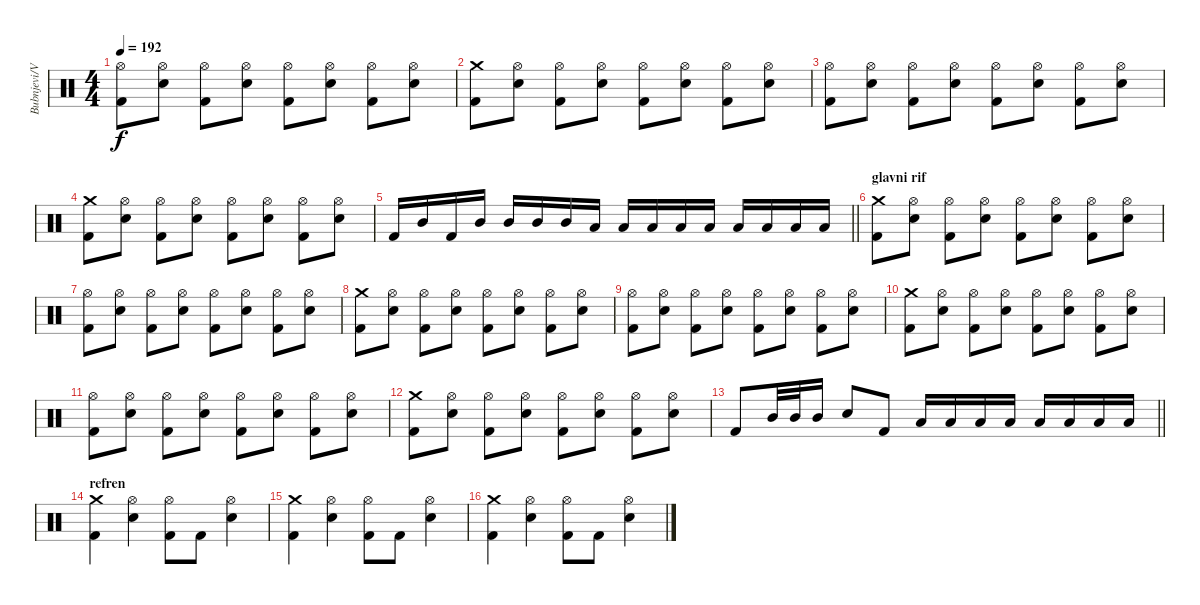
\track ("Bubnjevi/Vestac Tlacitelj" "Bubnjevi/V") {instrument percussion}
\staff {score}
\articulation defaults
\ts (4 4)
\tempo 192
\clef neutral
\ks c
("Hi-Hat (open)" "Kick (hit) 2").8{dy f} ("Hi-Hat (open)" "Electric Snare (hit)").8 ("Hi-Hat (open)" "Kick (hit) 2").8 ("Hi-Hat (open)" "Electric Snare (hit)").8 ("Hi-Hat (open)" "Kick (hit) 2").8 ("Hi-Hat (open)" "Electric Snare (hit)").8 ("Hi-Hat (open)" "Kick (hit) 2").8 ("Hi-Hat (open)" "Electric Snare (hit)").8 |
("Crash medium (hit)" "Kick (hit) 2").8 ("Hi-Hat (open)" "Electric Snare (hit)").8 ("Hi-Hat (open)" "Kick (hit) 2").8 ("Hi-Hat (open)" "Electric Snare (hit)").8 ("Hi-Hat (open)" "Kick (hit) 2").8 ("Hi-Hat (open)" "Electric Snare (hit)").8 ("Hi-Hat (open)" "Kick (hit) 2").8 ("Hi-Hat (open)" "Electric Snare (hit)").8 |
("Hi-Hat (open)" "Kick (hit) 2").8 ("Hi-Hat (open)" "Electric Snare (hit)").8 ("Hi-Hat (open)" "Kick (hit) 2").8 ("Hi-Hat (open)" "Electric Snare (hit)").8 ("Hi-Hat (open)" "Kick (hit) 2").8 ("Hi-Hat (open)" "Electric Snare (hit)").8 ("Hi-Hat (open)" "Kick (hit) 2").8 ("Hi-Hat (open)" "Electric Snare (hit)").8 |
("Crash medium (hit)" "Kick (hit) 2").8 ("Hi-Hat (open)" "Electric Snare (hit)").8 ("Hi-Hat (open)" "Kick (hit) 2").8 ("Hi-Hat (open)" "Electric Snare (hit)").8 ("Hi-Hat (open)" "Kick (hit) 2").8 ("Hi-Hat (open)" "Electric Snare (hit)").8 ("Hi-Hat (open)" "Kick (hit) 2").8 ("Hi-Hat (open)" "Electric Snare (hit)").8 |
\barLineRight lightlight "Kick (hit) 2".16 "Mid Tom (hit)".16 "Kick (hit) 2".16 "Mid Tom (hit)".16 "Mid Tom (hit)".16 "Mid Tom (hit)".16 "Mid Tom (hit)".16 "Low Tom (hit)".16 "Low Tom (hit)".16 "Low Tom (hit)".16 "Low Tom (hit)".16 "Low Floor Tom (hit)".16 "Low Floor Tom (hit)".16 "Low Floor Tom (hit)".16 "Low Floor Tom (hit)".16 "Low Floor Tom (hit)".16
|
\section ("" "glavni rif")
("Crash medium (hit)" "Kick (hit) 2").8 ("Hi-Hat (open)" "Electric Snare (hit)").8 ("Hi-Hat (open)" "Kick (hit) 2").8 ("Hi-Hat (open)" "Electric Snare (hit)").8 ("Hi-Hat (open)" "Kick (hit) 2").8 ("Hi-Hat (open)" "Electric Snare (hit)").8 ("Hi-Hat (open)" "Kick (hit) 2").8 ("Hi-Hat (open)" "Electric Snare (hit)").8 |
("Hi-Hat (open)" "Kick (hit) 2").8 ("Hi-Hat (open)" "Electric Snare (hit)").8 ("Hi-Hat (open)" "Kick (hit) 2").8 ("Hi-Hat (open)" "Electric Snare (hit)").8 ("Hi-Hat (open)" "Kick (hit) 2").8 ("Hi-Hat (open)" "Electric Snare (hit)").8 ("Hi-Hat (open)" "Kick (hit) 2").8 ("Hi-Hat (open)" "Electric Snare (hit)").8 |
("Crash medium (hit)" "Kick (hit) 2").8 ("Hi-Hat (open)" "Electric Snare (hit)").8 ("Hi-Hat (open)" "Kick (hit) 2").8 ("Hi-Hat (open)" "Electric Snare (hit)").8 ("Hi-Hat (open)" "Kick (hit) 2").8 ("Hi-Hat (open)" "Electric Snare (hit)").8 ("Hi-Hat (open)" "Kick (hit) 2").8 ("Hi-Hat (open)" "Electric Snare (hit)").8 |
("Hi-Hat (open)" "Kick (hit) 2").8 ("Hi-Hat (open)" "Electric Snare (hit)").8 ("Hi-Hat (open)" "Kick (hit) 2").8 ("Hi-Hat (open)" "Electric Snare (hit)").8 ("Hi-Hat (open)" "Kick (hit) 2").8 ("Hi-Hat (open)" "Electric Snare (hit)").8 ("Hi-Hat (open)" "Kick (hit) 2").8 ("Hi-Hat (open)" "Electric Snare (hit)").8 |
("Crash medium (hit)" "Kick (hit) 2").8 ("Hi-Hat (open)" "Electric Snare (hit)").8 ("Hi-Hat (open)" "Kick (hit) 2").8 ("Hi-Hat (open)" "Electric Snare (hit)").8 ("Hi-Hat (open)" "Kick (hit) 2").8 ("Hi-Hat (open)" "Electric Snare (hit)").8 ("Hi-Hat (open)" "Kick (hit) 2").8 ("Hi-Hat (open)" "Electric Snare (hit)").8 |
("Hi-Hat (open)" "Kick (hit) 2").8 ("Hi-Hat (open)" "Electric Snare (hit)").8 ("Hi-Hat (open)" "Kick (hit) 2").8 ("Hi-Hat (open)" "Electric Snare (hit)").8 ("Hi-Hat (open)" "Kick (hit) 2").8 ("Hi-Hat (open)" "Electric Snare (hit)").8 ("Hi-Hat (open)" "Kick (hit) 2").8 ("Hi-Hat (open)" "Electric Snare (hit)").8 |
("Crash medium (hit)" "Kick (hit) 2").8 ("Hi-Hat (open)" "Electric Snare (hit)").8 ("Hi-Hat (open)" "Kick (hit) 2").8 ("Hi-Hat (open)" "Electric Snare (hit)").8 ("Hi-Hat (open)" "Kick (hit) 2").8 ("Hi-Hat (open)" "Electric Snare (hit)").8 ("Hi-Hat (open)" "Kick (hit) 2").8 ("Hi-Hat (open)" "Electric Snare (hit)").8 |
\barLineRight lightlight "Kick (hit) 2".8 "Mid Tom (hit)".32 "Mid Tom (hit)".32 "Mid Tom (hit)".16 "Electric Snare (hit)".8 "Kick (hit) 2".8 "Low Tom (hit)".16 "Low Tom (hit)".16 "Low Tom (hit)".16 "Low Tom (hit)".16 "Low Floor Tom (hit)".16 "Low Floor Tom (hit)".16 "Low Floor Tom (hit)".16 "Low Floor Tom (hit)".16
|
\section ("" "refren")
("Crash medium (hit)" "Kick (hit) 2").4 ("Hi-Hat (open)" "Electric Snare (hit)").4 ("Hi-Hat (open)" "Kick (hit) 2").8 "Kick (hit) 2".8 ("Hi-Hat (open)" "Electric Snare (hit)").4 |
("Crash medium (hit)" "Kick (hit) 2").4 ("Hi-Hat (open)" "Electric Snare (hit)").4 ("Hi-Hat (open)" "Kick (hit) 2").8 "Kick (hit) 2".8 ("Hi-Hat (open)" "Electric Snare (hit)").4 |
("Crash medium (hit)" "Kick (hit) 2").4 ("Hi-Hat (open)" "Electric Snare (hit)").4 ("Hi-Hat (open)" "Kick (hit) 2").8 "Kick (hit) 2".8 ("Hi-Hat (open)" "Electric Snare (hit)").4
